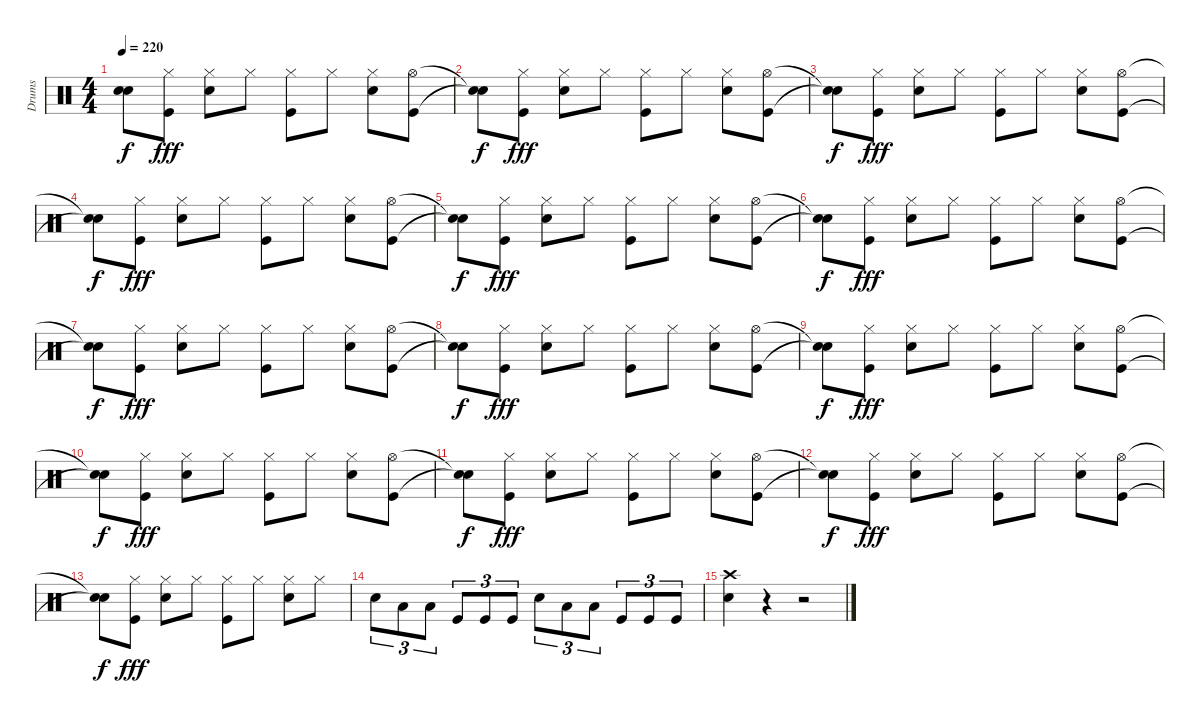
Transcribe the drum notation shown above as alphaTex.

\track ("Drums" "Drums") {instrument percussion}
\staff {score}
\articulation defaults
\ts (4 4)
\tempo 220
\clef neutral
\ks c
("Snare (hit)"{t} "Snare (hit)"{t}).8{dy f} ("Hi-Hat (closed)" "Kick (hit)").8{dy fff} ("Hi-Hat (closed)" "Snare (hit) 2").8 "Hi-Hat (closed)".8 ("Hi-Hat (closed)" "Kick (hit)").8 "Hi-Hat (closed)".8 ("Hi-Hat (closed)" "Snare (hit) 2").8 ("Hi-Hat (open)" "Kick (hit)").8 |
("Snare (hit)"{t} "Snare (hit)"{t}).8{dy f} ("Hi-Hat (closed)" "Kick (hit)").8{dy fff} ("Hi-Hat (closed)" "Snare (hit) 2").8 "Hi-Hat (closed)".8 ("Hi-Hat (closed)" "Kick (hit)").8 "Hi-Hat (closed)".8 ("Hi-Hat (closed)" "Snare (hit) 2").8 ("Hi-Hat (open)" "Kick (hit)").8 |
("Snare (hit)"{t} "Snare (hit)"{t}).8{dy f} ("Hi-Hat (closed)" "Kick (hit)").8{dy fff} ("Hi-Hat (closed)" "Snare (hit) 2").8 "Hi-Hat (closed)".8 ("Hi-Hat (closed)" "Kick (hit)").8 "Hi-Hat (closed)".8 ("Hi-Hat (closed)" "Snare (hit) 2").8 ("Hi-Hat (open)" "Kick (hit)").8 |
("Snare (hit)"{t} "Snare (hit)"{t}).8{dy f} ("Hi-Hat (closed)" "Kick (hit)").8{dy fff} ("Hi-Hat (closed)" "Snare (hit) 2").8 "Hi-Hat (closed)".8 ("Hi-Hat (closed)" "Kick (hit)").8 "Hi-Hat (closed)".8 ("Hi-Hat (closed)" "Snare (hit) 2").8 ("Hi-Hat (open)" "Kick (hit)").8 |
("Snare (hit)"{t} "Snare (hit)"{t}).8{dy f} ("Hi-Hat (closed)" "Kick (hit)").8{dy fff} ("Hi-Hat (closed)" "Snare (hit) 2").8 "Hi-Hat (closed)".8 ("Hi-Hat (closed)" "Kick (hit)").8 "Hi-Hat (closed)".8 ("Hi-Hat (closed)" "Snare (hit) 2").8 ("Hi-Hat (open)" "Kick (hit)").8 |
("Snare (hit)"{t} "Snare (hit)"{t}).8{dy f} ("Hi-Hat (closed)" "Kick (hit)").8{dy fff} ("Hi-Hat (closed)" "Snare (hit) 2").8 "Hi-Hat (closed)".8 ("Hi-Hat (closed)" "Kick (hit)").8 "Hi-Hat (closed)".8 ("Hi-Hat (closed)" "Snare (hit) 2").8 ("Hi-Hat (open)" "Kick (hit)").8 |
("Snare (hit)"{t} "Snare (hit)"{t}).8{dy f} ("Hi-Hat (closed)" "Kick (hit)").8{dy fff} ("Hi-Hat (closed)" "Snare (hit) 2").8 "Hi-Hat (closed)".8 ("Hi-Hat (closed)" "Kick (hit)").8 "Hi-Hat (closed)".8 ("Hi-Hat (closed)" "Snare (hit) 2").8 ("Hi-Hat (open)" "Kick (hit)").8 |
("Snare (hit)"{t} "Snare (hit)"{t}).8{dy f} ("Hi-Hat (closed)" "Kick (hit)").8{dy fff} ("Hi-Hat (closed)" "Snare (hit) 2").8 "Hi-Hat (closed)".8 ("Hi-Hat (closed)" "Kick (hit)").8 "Hi-Hat (closed)".8 ("Hi-Hat (closed)" "Snare (hit) 2").8 ("Hi-Hat (open)" "Kick (hit)").8 |
("Snare (hit)"{t} "Snare (hit)"{t}).8{dy f} ("Hi-Hat (closed)" "Kick (hit)").8{dy fff} ("Hi-Hat (closed)" "Snare (hit) 2").8 "Hi-Hat (closed)".8 ("Hi-Hat (closed)" "Kick (hit)").8 "Hi-Hat (closed)".8 ("Hi-Hat (closed)" "Snare (hit) 2").8 ("Hi-Hat (open)" "Kick (hit)").8 |
("Snare (hit)"{t} "Snare (hit)"{t}).8{dy f} ("Hi-Hat (closed)" "Kick (hit)").8{dy fff} ("Hi-Hat (closed)" "Snare (hit) 2").8 "Hi-Hat (closed)".8 ("Hi-Hat (closed)" "Kick (hit)").8 "Hi-Hat (closed)".8 ("Hi-Hat (closed)" "Snare (hit) 2").8 ("Hi-Hat (open)" "Kick (hit)").8 |
("Snare (hit)"{t} "Snare (hit)"{t}).8{dy f} ("Hi-Hat (closed)" "Kick (hit)").8{dy fff} ("Hi-Hat (closed)" "Snare (hit) 2").8 "Hi-Hat (closed)".8 ("Hi-Hat (closed)" "Kick (hit)").8 "Hi-Hat (closed)".8 ("Hi-Hat (closed)" "Snare (hit) 2").8 ("Hi-Hat (open)" "Kick (hit)").8 |
("Snare (hit)"{t} "Snare (hit)"{t}).8{dy f} ("Hi-Hat (closed)" "Kick (hit)").8{dy fff} ("Hi-Hat (closed)" "Snare (hit) 2").8 "Hi-Hat (closed)".8 ("Hi-Hat (closed)" "Kick (hit)").8 "Hi-Hat (closed)".8 ("Hi-Hat (closed)" "Snare (hit) 2").8 ("Hi-Hat (open)" "Kick (hit)").8 |
("Snare (hit)"{t} "Snare (hit)"{t}).8{dy f} ("Hi-Hat (closed)" "Kick (hit)").8{dy fff} ("Hi-Hat (closed)" "Snare (hit) 2").8 "Hi-Hat (closed)".8 ("Hi-Hat (closed)" "Kick (hit)").8 "Hi-Hat (closed)".8 ("Hi-Hat (closed)" "Snare (hit) 2").8 "Hi-Hat (closed)".8 |
"Snare (hit) 2".8{tu (3 2)} "Low Tom (hit)".8{tu (3 2)} "Low Tom (hit)".8{tu (3 2)} "Kick (hit)".8{tu (3 2)} "Kick (hit)".8{tu (3 2)} "Kick (hit)".8{tu (3 2)} "Snare (hit) 2".8{tu (3 2)} "Low Tom (hit)".8{tu (3 2)} "Low Tom (hit)".8{tu (3 2)} "Kick (hit)".8{tu (3 2)} "Kick (hit)".8{tu (3 2)} "Kick (hit)".8{tu (3 2)} |
("Crash high (hit)" "Snare (hit) 2").4 r.4 r.2
